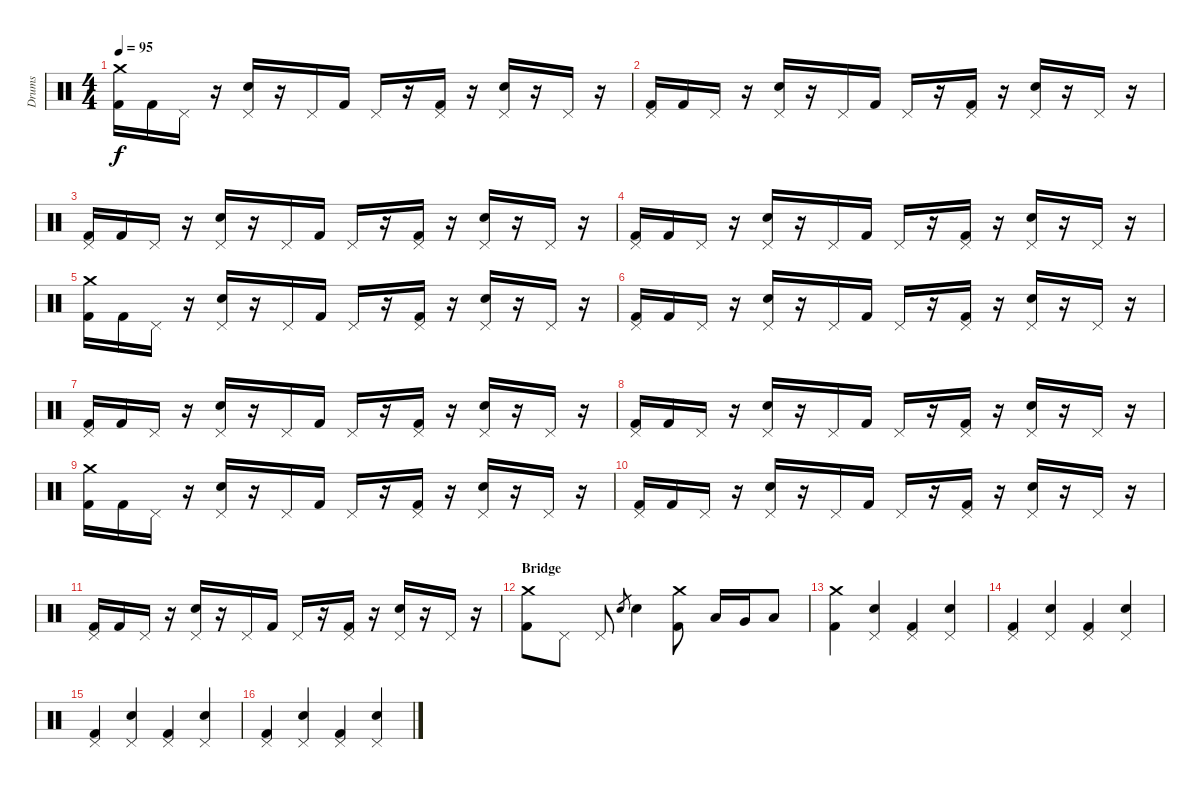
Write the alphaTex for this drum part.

\track ("Drums" "Drums") {instrument percussion}
\staff {score}
\articulation defaults
\ts (4 4)
\tempo 95
\clef neutral
\ks c
("Crash medium (hit)" "Kick (hit) 2").16{dy f} "Kick (hit) 2".16 "Pedal Hi-Hat (hit)".16 r.16 ("Pedal Hi-Hat (hit)" "Electric Snare (hit)").16 r.16 "Pedal Hi-Hat (hit)".16 "Kick (hit) 2".16 "Pedal Hi-Hat (hit)".16 r.16 ("Pedal Hi-Hat (hit)" "Kick (hit) 2").16 r.16 ("Pedal Hi-Hat (hit)" "Electric Snare (hit)").16 r.16 "Pedal Hi-Hat (hit)".16 r.16 |
("Pedal Hi-Hat (hit)" "Kick (hit) 2").16 "Kick (hit) 2".16 "Pedal Hi-Hat (hit)".16 r.16 ("Pedal Hi-Hat (hit)" "Electric Snare (hit)").16 r.16 "Pedal Hi-Hat (hit)".16 "Kick (hit) 2".16 "Pedal Hi-Hat (hit)".16 r.16 ("Pedal Hi-Hat (hit)" "Kick (hit) 2").16 r.16 ("Pedal Hi-Hat (hit)" "Electric Snare (hit)").16 r.16 "Pedal Hi-Hat (hit)".16 r.16 |
("Pedal Hi-Hat (hit)" "Kick (hit) 2").16 "Kick (hit) 2".16 "Pedal Hi-Hat (hit)".16 r.16 ("Pedal Hi-Hat (hit)" "Electric Snare (hit)").16 r.16 "Pedal Hi-Hat (hit)".16 "Kick (hit) 2".16 "Pedal Hi-Hat (hit)".16 r.16 ("Pedal Hi-Hat (hit)" "Kick (hit) 2").16 r.16 ("Pedal Hi-Hat (hit)" "Electric Snare (hit)").16 r.16 "Pedal Hi-Hat (hit)".16 r.16 |
("Pedal Hi-Hat (hit)" "Kick (hit) 2").16 "Kick (hit) 2".16 "Pedal Hi-Hat (hit)".16 r.16 ("Pedal Hi-Hat (hit)" "Electric Snare (hit)").16 r.16 "Pedal Hi-Hat (hit)".16 "Kick (hit) 2".16 "Pedal Hi-Hat (hit)".16 r.16 ("Pedal Hi-Hat (hit)" "Kick (hit) 2").16 r.16 ("Pedal Hi-Hat (hit)" "Electric Snare (hit)").16 r.16 "Pedal Hi-Hat (hit)".16 r.16 |
("Crash medium (hit)" "Kick (hit) 2").16 "Kick (hit) 2".16 "Pedal Hi-Hat (hit)".16 r.16 ("Pedal Hi-Hat (hit)" "Electric Snare (hit)").16 r.16 "Pedal Hi-Hat (hit)".16 "Kick (hit) 2".16 "Pedal Hi-Hat (hit)".16 r.16 ("Pedal Hi-Hat (hit)" "Kick (hit) 2").16 r.16 ("Pedal Hi-Hat (hit)" "Electric Snare (hit)").16 r.16 "Pedal Hi-Hat (hit)".16 r.16 |
("Pedal Hi-Hat (hit)" "Kick (hit) 2").16 "Kick (hit) 2".16 "Pedal Hi-Hat (hit)".16 r.16 ("Pedal Hi-Hat (hit)" "Electric Snare (hit)").16 r.16 "Pedal Hi-Hat (hit)".16 "Kick (hit) 2".16 "Pedal Hi-Hat (hit)".16 r.16 ("Pedal Hi-Hat (hit)" "Kick (hit) 2").16 r.16 ("Pedal Hi-Hat (hit)" "Electric Snare (hit)").16 r.16 "Pedal Hi-Hat (hit)".16 r.16 |
("Pedal Hi-Hat (hit)" "Kick (hit) 2").16 "Kick (hit) 2".16 "Pedal Hi-Hat (hit)".16 r.16 ("Pedal Hi-Hat (hit)" "Electric Snare (hit)").16 r.16 "Pedal Hi-Hat (hit)".16 "Kick (hit) 2".16 "Pedal Hi-Hat (hit)".16 r.16 ("Pedal Hi-Hat (hit)" "Kick (hit) 2").16 r.16 ("Pedal Hi-Hat (hit)" "Electric Snare (hit)").16 r.16 "Pedal Hi-Hat (hit)".16 r.16 |
("Pedal Hi-Hat (hit)" "Kick (hit) 2").16 "Kick (hit) 2".16 "Pedal Hi-Hat (hit)".16 r.16 ("Pedal Hi-Hat (hit)" "Electric Snare (hit)").16 r.16 "Pedal Hi-Hat (hit)".16 "Kick (hit) 2".16 "Pedal Hi-Hat (hit)".16 r.16 ("Pedal Hi-Hat (hit)" "Kick (hit) 2").16 r.16 ("Pedal Hi-Hat (hit)" "Electric Snare (hit)").16 r.16 "Pedal Hi-Hat (hit)".16 r.16 |
("Crash medium (hit)" "Kick (hit) 2").16 "Kick (hit) 2".16 "Pedal Hi-Hat (hit)".16 r.16 ("Pedal Hi-Hat (hit)" "Electric Snare (hit)").16 r.16 "Pedal Hi-Hat (hit)".16 "Kick (hit) 2".16 "Pedal Hi-Hat (hit)".16 r.16 ("Pedal Hi-Hat (hit)" "Kick (hit) 2").16 r.16 ("Pedal Hi-Hat (hit)" "Electric Snare (hit)").16 r.16 "Pedal Hi-Hat (hit)".16 r.16 |
("Pedal Hi-Hat (hit)" "Kick (hit) 2").16 "Kick (hit) 2".16 "Pedal Hi-Hat (hit)".16 r.16 ("Pedal Hi-Hat (hit)" "Electric Snare (hit)").16 r.16 "Pedal Hi-Hat (hit)".16 "Kick (hit) 2".16 "Pedal Hi-Hat (hit)".16 r.16 ("Pedal Hi-Hat (hit)" "Kick (hit) 2").16 r.16 ("Pedal Hi-Hat (hit)" "Electric Snare (hit)").16 r.16 "Pedal Hi-Hat (hit)".16 r.16 |
("Pedal Hi-Hat (hit)" "Kick (hit) 2").16 "Kick (hit) 2".16 "Pedal Hi-Hat (hit)".16 r.16 ("Pedal Hi-Hat (hit)" "Electric Snare (hit)").16 r.16 "Pedal Hi-Hat (hit)".16 "Kick (hit) 2".16 "Pedal Hi-Hat (hit)".16 r.16 ("Pedal Hi-Hat (hit)" "Kick (hit) 2").16 r.16 ("Pedal Hi-Hat (hit)" "Electric Snare (hit)").16 r.16 "Pedal Hi-Hat (hit)".16 r.16 |
\section ("" "Bridge")
("Kick (hit) 2" "Crash medium (hit)").8 "Pedal Hi-Hat (hit)".8 "Pedal Hi-Hat (hit)".8 "Electric Snare (hit)".8{gr} "Electric Snare (hit)".4 ("Kick (hit) 2" "Crash medium (hit)").8 "Low Tom (hit)".16 "Very Low Tom (hit)".16 "Low Floor Tom (hit)".8 |
("Kick (hit) 2" "Crash medium (hit)").4 ("Electric Snare (hit)" "Pedal Hi-Hat (hit)").4 ("Kick (hit) 2" "Pedal Hi-Hat (hit)").4 ("Electric Snare (hit)" "Pedal Hi-Hat (hit)").4 |
("Kick (hit) 2" "Pedal Hi-Hat (hit)").4 ("Electric Snare (hit)" "Pedal Hi-Hat (hit)").4 ("Kick (hit) 2" "Pedal Hi-Hat (hit)").4 ("Electric Snare (hit)" "Pedal Hi-Hat (hit)").4 |
("Kick (hit) 2" "Pedal Hi-Hat (hit)").4 ("Electric Snare (hit)" "Pedal Hi-Hat (hit)").4 ("Kick (hit) 2" "Pedal Hi-Hat (hit)").4 ("Electric Snare (hit)" "Pedal Hi-Hat (hit)").4 |
("Kick (hit) 2" "Pedal Hi-Hat (hit)").4 ("Electric Snare (hit)" "Pedal Hi-Hat (hit)").4 ("Kick (hit) 2" "Pedal Hi-Hat (hit)").4 ("Electric Snare (hit)" "Pedal Hi-Hat (hit)").4
